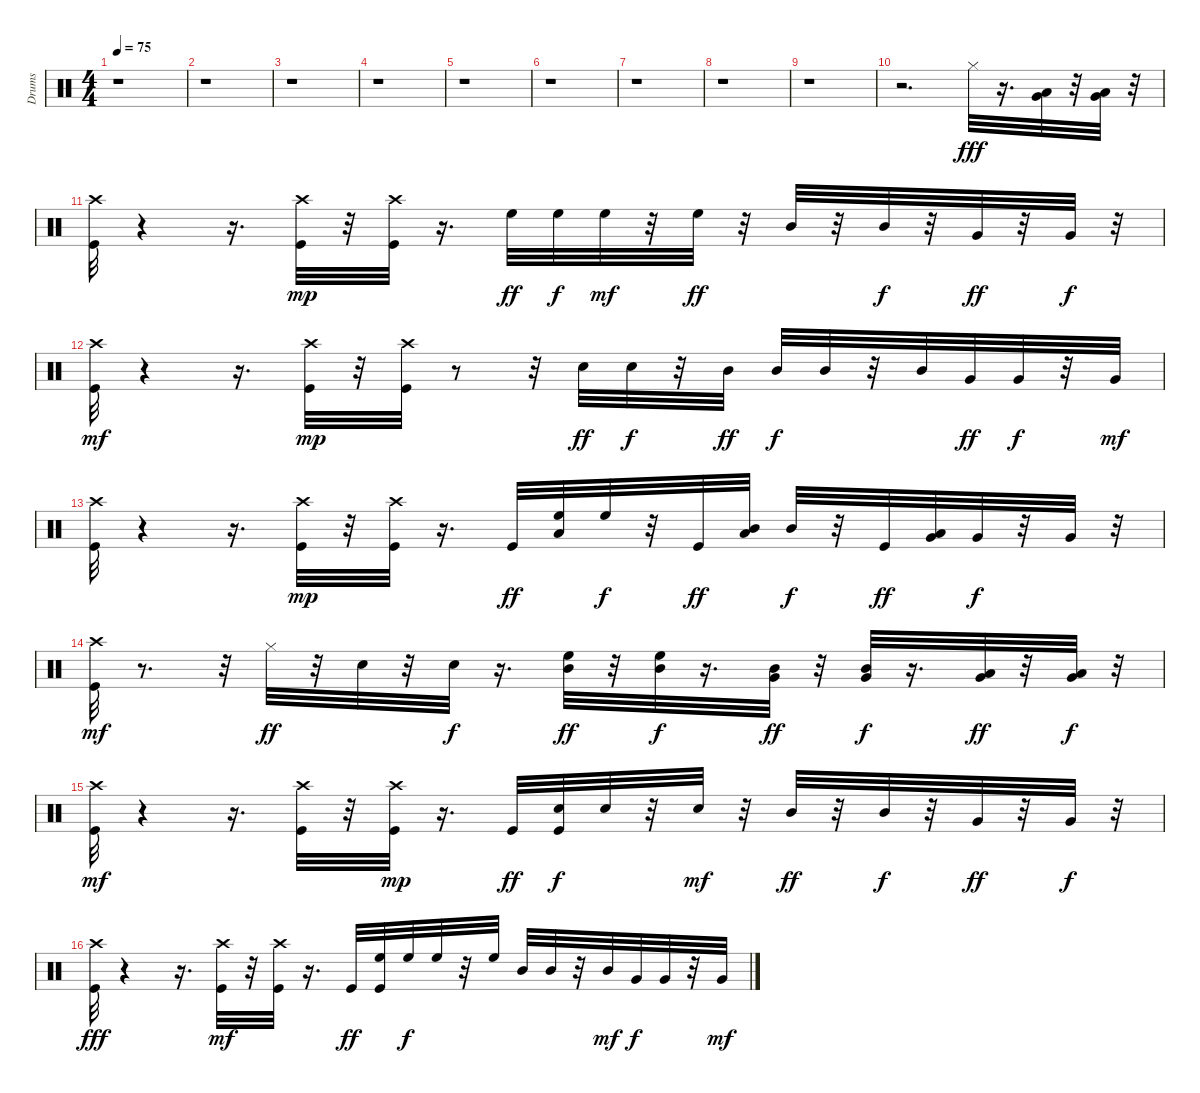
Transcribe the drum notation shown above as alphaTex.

\track ("Drums" "Drums") {instrument percussion}
\staff {score}
\articulation defaults
\ts (4 4)
\tempo 75
\clef neutral
\ks c
r.1{dy fff} |
r.1 |
r.1 |
r.1 |
r.1 |
r.1 |
r.1 |
r.1 |
r.1 |
r.2{d} "Hi-Hat (closed)".32 r.16{d} ("Low Floor Tom (hit)" "Very Low Tom (hit)").32 r.32 ("Low Floor Tom (hit)" "Very Low Tom (hit)").32 r.32 |
("Kick (hit)" "Crash high (hit)").32 r.4 r.16{d} ("Kick (hit)" "Crash high (hit)").32{dy mp} r.32 ("Kick (hit)" "Crash high (hit)").32 r.16{d} "High Floor Tom (hit)".32{dy ff} "High Floor Tom (hit)".32{dy f} "High Floor Tom (hit)".32{dy mf} r.32 "High Floor Tom (hit)".32{dy ff} r.32 "Mid Tom (hit)".32 r.32 "Mid Tom (hit)".32{dy f} r.32 "Very Low Tom (hit)".32{dy ff} r.32 "Very Low Tom (hit)".32{dy f} r.32 |
("Kick (hit)" "Crash high (hit)").32{dy mf} r.4 r.16{d} ("Kick (hit)" "Crash high (hit)").32{dy mp} r.32 ("Kick (hit)" "Crash high (hit)").32 r.8 r.32 "Snare (hit) 2".32{dy ff} "Snare (hit) 2".32{dy f} r.32 "Mid Tom (hit)".32{dy ff} "Mid Tom (hit)".32{dy f} "Mid Tom (hit)".32 r.32 "Mid Tom (hit)".32 "Very Low Tom (hit)".32{dy ff} "Very Low Tom (hit)".32{dy f} r.32 "Very Low Tom (hit)".32{dy mf} |
("Kick (hit)" "Crash high (hit)").32 r.4 r.16{d} ("Kick (hit)" "Crash high (hit)").32{dy mp} r.32 ("Kick (hit)" "Crash high (hit)").32 r.16{d} "Kick (hit)".32{dy ff} ("Low Floor Tom (hit)" "High Floor Tom (hit)").32 "High Floor Tom (hit)".32{dy f} r.32 "Kick (hit)".32{dy ff} ("Low Floor Tom (hit)" "Mid Tom (hit)").32 "Mid Tom (hit)".32{dy f} r.32 "Kick (hit)".32{dy ff} ("Low Floor Tom (hit)" "Very Low Tom (hit)").32 "Very Low Tom (hit)".32{dy f} r.32 "Very Low Tom (hit)".32 r.32 |
("Kick (hit)" "Crash high (hit)").32{dy mf} r.8{d} r.32 "Hi-Hat (closed)".32{dy ff} r.32 "Snare (hit) 2".32 r.32 "Snare (hit) 2".32{dy f} r.16{d} ("Mid Tom (hit)" "High Floor Tom (hit)").32{dy ff} r.32 ("Mid Tom (hit)" "High Floor Tom (hit)").32{dy f} r.16{d} ("Very Low Tom (hit)" "Mid Tom (hit)").32{dy ff} r.32 ("Very Low Tom (hit)" "Mid Tom (hit)").32{dy f} r.16{d} ("Low Floor Tom (hit)" "Very Low Tom (hit)").32{dy ff} r.32 ("Low Floor Tom (hit)" "Very Low Tom (hit)").32{dy f} r.32 |
("Kick (hit)" "Crash high (hit)").32{dy mf} r.4 r.16{d} ("Kick (hit)" "Crash high (hit)").32 r.32 ("Kick (hit)" "Crash high (hit)").32{dy mp} r.16{d} "Kick (hit)".32{dy ff} ("Kick (hit)" "Snare (hit) 2").32{dy f} "Snare (hit) 2".32 r.32 "Snare (hit) 2".32{dy mf} r.32 "Mid Tom (hit)".32{dy ff} r.32 "Mid Tom (hit)".32{dy f} r.32 "Very Low Tom (hit)".32{dy ff} r.32 "Very Low Tom (hit)".32{dy f} r.32 |
("Kick (hit)" "Crash high (hit)").32{dy fff} r.4 r.16{d} ("Kick (hit)" "Crash high (hit)").32{dy mf} r.32 ("Kick (hit)" "Crash high (hit)").32 r.16{d} "Kick (hit)".32{dy ff} ("Kick (hit)" "High Floor Tom (hit)").32 "High Floor Tom (hit)".32{dy f} "High Floor Tom (hit)".32 r.32 "High Floor Tom (hit)".32 "Mid Tom (hit)".32 "Mid Tom (hit)".32 r.32 "Mid Tom (hit)".32{dy mf} "Very Low Tom (hit)".32{dy f} "Very Low Tom (hit)".32 r.32 "Very Low Tom (hit)".32{dy mf}
